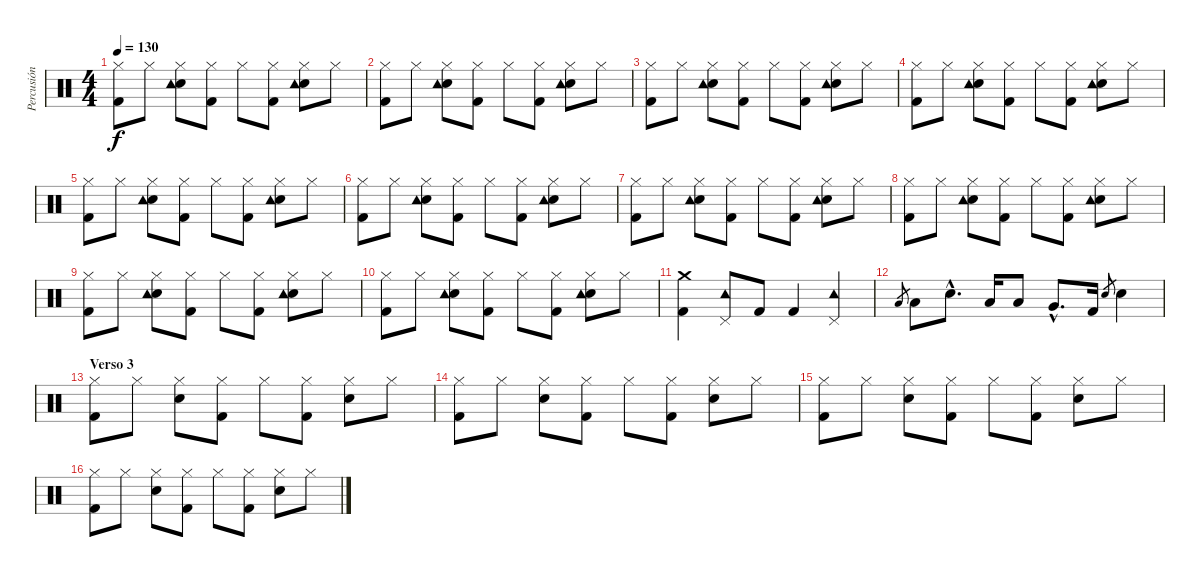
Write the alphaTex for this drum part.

\track ("Percusión" "Percusión") {instrument percussion}
\staff {score}
\articulation defaults
\ts (4 4)
\tempo 130
\clef neutral
\ks c
("Hi-Hat (closed)" "Kick (hit) 2").8{dy f} "Hi-Hat (closed)".8 ("Hi-Hat (closed)" "Electric Snare (hit)" "Tambourine (hit)").8 ("Hi-Hat (closed)" "Kick (hit) 2").8 "Hi-Hat (closed)".8 ("Hi-Hat (closed)" "Kick (hit) 2").8 ("Hi-Hat (closed)" "Electric Snare (hit)" "Tambourine (hit)").8 "Hi-Hat (closed)".8 |
("Hi-Hat (closed)" "Kick (hit) 2").8 "Hi-Hat (closed)".8 ("Hi-Hat (closed)" "Electric Snare (hit)" "Tambourine (hit)").8 ("Hi-Hat (closed)" "Kick (hit) 2").8 "Hi-Hat (closed)".8 ("Hi-Hat (closed)" "Kick (hit) 2").8 ("Hi-Hat (closed)" "Electric Snare (hit)" "Tambourine (hit)").8 "Hi-Hat (closed)".8 |
("Hi-Hat (closed)" "Kick (hit) 2").8 "Hi-Hat (closed)".8 ("Hi-Hat (closed)" "Electric Snare (hit)" "Tambourine (hit)").8 ("Hi-Hat (closed)" "Kick (hit) 2").8 "Hi-Hat (closed)".8 ("Hi-Hat (closed)" "Kick (hit) 2").8 ("Hi-Hat (closed)" "Electric Snare (hit)" "Tambourine (hit)").8 "Hi-Hat (closed)".8 |
("Hi-Hat (closed)" "Kick (hit) 2").8 "Hi-Hat (closed)".8 ("Hi-Hat (closed)" "Electric Snare (hit)" "Tambourine (hit)").8 ("Hi-Hat (closed)" "Kick (hit) 2").8 "Hi-Hat (closed)".8 ("Hi-Hat (closed)" "Kick (hit) 2").8 ("Hi-Hat (closed)" "Electric Snare (hit)" "Tambourine (hit)").8 "Hi-Hat (closed)".8 |
("Hi-Hat (closed)" "Kick (hit) 2").8 "Hi-Hat (closed)".8 ("Hi-Hat (closed)" "Electric Snare (hit)" "Tambourine (hit)").8 ("Hi-Hat (closed)" "Kick (hit) 2").8 "Hi-Hat (closed)".8 ("Hi-Hat (closed)" "Kick (hit) 2").8 ("Hi-Hat (closed)" "Electric Snare (hit)" "Tambourine (hit)").8 "Hi-Hat (closed)".8 |
("Hi-Hat (closed)" "Kick (hit) 2").8 "Hi-Hat (closed)".8 ("Hi-Hat (closed)" "Electric Snare (hit)" "Tambourine (hit)").8 ("Hi-Hat (closed)" "Kick (hit) 2").8 "Hi-Hat (closed)".8 ("Hi-Hat (closed)" "Kick (hit) 2").8 ("Hi-Hat (closed)" "Electric Snare (hit)" "Tambourine (hit)").8 "Hi-Hat (closed)".8 |
("Hi-Hat (closed)" "Kick (hit) 2").8 "Hi-Hat (closed)".8 ("Hi-Hat (closed)" "Electric Snare (hit)" "Tambourine (hit)").8 ("Hi-Hat (closed)" "Kick (hit) 2").8 "Hi-Hat (closed)".8 ("Hi-Hat (closed)" "Kick (hit) 2").8 ("Hi-Hat (closed)" "Electric Snare (hit)" "Tambourine (hit)").8 "Hi-Hat (closed)".8 |
("Hi-Hat (closed)" "Kick (hit) 2").8 "Hi-Hat (closed)".8 ("Hi-Hat (closed)" "Electric Snare (hit)" "Tambourine (hit)").8 ("Hi-Hat (closed)" "Kick (hit) 2").8 "Hi-Hat (closed)".8 ("Hi-Hat (closed)" "Kick (hit) 2").8 ("Hi-Hat (closed)" "Electric Snare (hit)" "Tambourine (hit)").8 "Hi-Hat (closed)".8 |
("Hi-Hat (closed)" "Kick (hit) 2").8 "Hi-Hat (closed)".8 ("Hi-Hat (closed)" "Electric Snare (hit)" "Tambourine (hit)").8 ("Hi-Hat (closed)" "Kick (hit) 2").8 "Hi-Hat (closed)".8 ("Hi-Hat (closed)" "Kick (hit) 2").8 ("Hi-Hat (closed)" "Electric Snare (hit)" "Tambourine (hit)").8 "Hi-Hat (closed)".8 |
("Hi-Hat (closed)" "Kick (hit) 2").8 "Hi-Hat (closed)".8 ("Hi-Hat (closed)" "Electric Snare (hit)" "Tambourine (hit)").8 ("Hi-Hat (closed)" "Kick (hit) 2").8 "Hi-Hat (closed)".8 ("Hi-Hat (closed)" "Kick (hit) 2").8 ("Hi-Hat (closed)" "Electric Snare (hit)" "Tambourine (hit)").8 "Hi-Hat (closed)".8 |
\section ("" "")
("Crash medium (hit)" "Kick (hit) 2").4 ("Pedal Hi-Hat (hit)" "Tambourine (hit)").8 "Kick (hit) 2".8 "Kick (hit) 2".4 ("Tambourine (hit)" "Pedal Hi-Hat (hit)").4 |
"Low Tom (hit)".8{gr} "Low Tom (hit)".8 "Electric Snare (hit)"{hac}.8{d} "Low Tom (hit)".16 "Low Tom (hit)".8 "Very Low Tom (hit)"{hac}.8{d} "Kick (hit) 2".16 "Electric Snare (hit)".8{gr} "Electric Snare (hit)".4 |
\section ("" "Verso 3")
("Hi-Hat (closed)" "Kick (hit) 2").8 "Hi-Hat (closed)".8 ("Hi-Hat (closed)" "Electric Snare (hit)").8 ("Hi-Hat (closed)" "Kick (hit) 2").8 "Hi-Hat (closed)".8 ("Hi-Hat (closed)" "Kick (hit) 2").8 ("Hi-Hat (closed)" "Electric Snare (hit)").8 "Hi-Hat (closed)".8 |
("Hi-Hat (closed)" "Kick (hit) 2").8 "Hi-Hat (closed)".8 ("Hi-Hat (closed)" "Electric Snare (hit)").8 ("Hi-Hat (closed)" "Kick (hit) 2").8 "Hi-Hat (closed)".8 ("Hi-Hat (closed)" "Kick (hit) 2").8 ("Hi-Hat (closed)" "Electric Snare (hit)").8 "Hi-Hat (closed)".8 |
("Hi-Hat (closed)" "Kick (hit) 2").8 "Hi-Hat (closed)".8 ("Hi-Hat (closed)" "Electric Snare (hit)").8 ("Hi-Hat (closed)" "Kick (hit) 2").8 "Hi-Hat (closed)".8 ("Hi-Hat (closed)" "Kick (hit) 2").8 ("Hi-Hat (closed)" "Electric Snare (hit)").8 "Hi-Hat (closed)".8 |
("Hi-Hat (closed)" "Kick (hit) 2").8 "Hi-Hat (closed)".8 ("Hi-Hat (closed)" "Electric Snare (hit)").8 ("Hi-Hat (closed)" "Kick (hit) 2").8 "Hi-Hat (closed)".8 ("Hi-Hat (closed)" "Kick (hit) 2").8 ("Hi-Hat (closed)" "Electric Snare (hit)").8 "Hi-Hat (closed)".8
